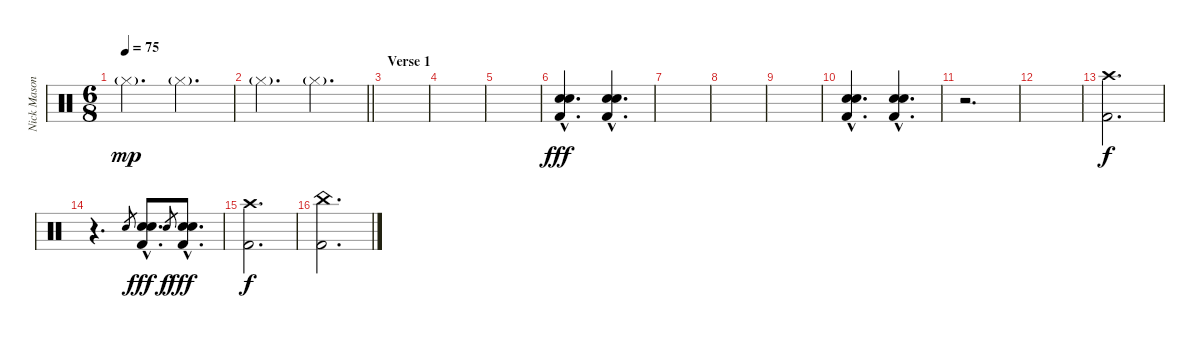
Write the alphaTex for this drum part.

\track ("Nick Mason (Drums)" "Nick Mason") {instrument percussion}
\staff {score}
\articulation defaults
\ts (6 8)
\tempo 75
\clef neutral
\ks c "Hi-Hat (closed)"{g}.4{d dy mp} "Hi-Hat (closed)"{g}.4{d}
|
\barLineRight lightlight "Hi-Hat (closed)"{g}.4{d} "Hi-Hat (closed)"{g}.4{d}
|
\section ("" "Verse 1")
|
|
|
("Snare (hit) 2"{hac} "Snare (hit) 2"{hac} "Kick (hit) 2"{hac}).4{d dy fff} ("Snare (hit) 2"{hac} "Snare (hit) 2"{hac} "Kick (hit) 2"{hac}).4{d} |
|
|
|
("Snare (hit) 2"{hac} "Snare (hit) 2" "Kick (hit) 2"{hac}).4{d} ("Snare (hit) 2"{hac} "Snare (hit) 2" "Kick (hit) 2"{hac}).4{d} |
r.2{d} |
|
("Crash high (hit)" "Kick (hit) 2").2{d dy f} |
r.4{d} "Snare (hit) 2".8{gr} ("Snare (hit) 2"{hac} "Kick (hit) 2"{hac} "Snare (hit) 2").8{d dy fff} "Snare (hit) 2".8{gr dy f} ("Snare (hit) 2"{hac} "Kick (hit) 2"{hac} "Snare (hit) 2").8{d dy fff} |
("Crash high (hit)" "Kick (hit) 2").2{d dy f} |
("China (hit)" "Kick (hit) 2").2{d}
